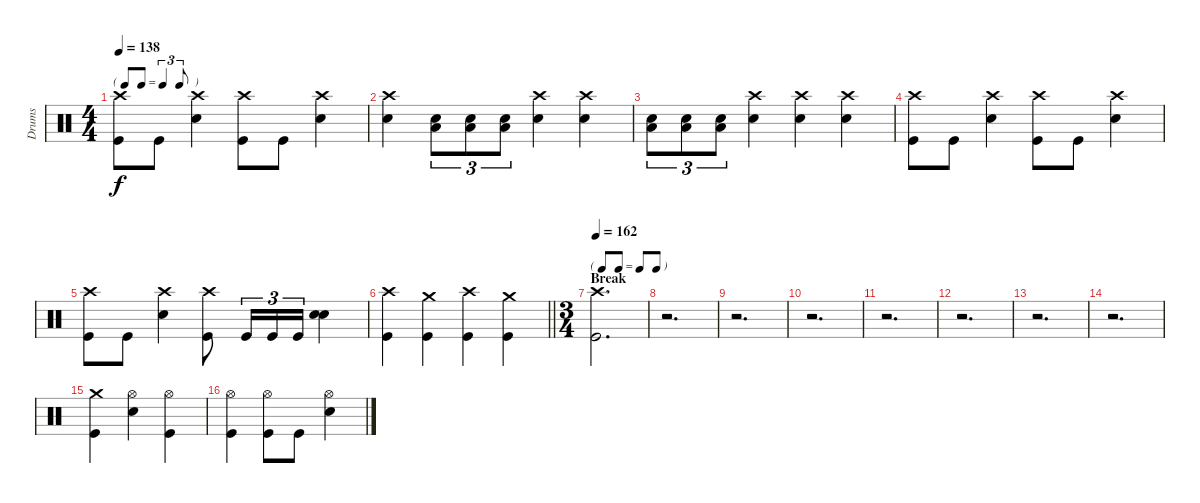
\track ("Drums" "Drums") {instrument percussion}
\staff {score}
\articulation defaults
\ts (4 4)
\tf triplet8th
\tempo 138
\clef neutral
\ks c
("Crash high (hit)" "Kick (hit)").8{dy f} "Kick (hit)".8 ("Crash high (hit)" "Snare (hit) 2").4 ("Crash high (hit)" "Kick (hit)").8 "Kick (hit)".8 ("Crash high (hit)" "Snare (hit) 2").4 |
("Crash high (hit)" "Snare (hit) 2").4 ("Low Tom (hit)" "Snare (hit) 2").8{tu (3 2)} ("Low Tom (hit)" "Snare (hit) 2").8{tu (3 2)} ("Low Tom (hit)" "Snare (hit) 2").8{tu (3 2)} ("Crash high (hit)" "Snare (hit) 2").4 ("Crash high (hit)" "Snare (hit) 2").4 |
("Low Tom (hit)" "Snare (hit) 2").8{tu (3 2)} ("Low Tom (hit)" "Snare (hit) 2").8{tu (3 2)} ("Low Tom (hit)" "Snare (hit) 2").8{tu (3 2)} ("Crash high (hit)" "Snare (hit) 2").4 ("Crash high (hit)" "Snare (hit) 2").4 ("Crash high (hit)" "Snare (hit) 2").4 |
("Crash high (hit)" "Kick (hit)").8 "Kick (hit)".8 ("Crash high (hit)" "Snare (hit) 2").4 ("Crash high (hit)" "Kick (hit)").8 "Kick (hit)".8 ("Crash high (hit)" "Snare (hit) 2").4 |
("Crash high (hit)" "Kick (hit)").8 "Kick (hit)".8 ("Crash high (hit)" "Snare (hit) 2").4 ("Crash high (hit)" "Kick (hit)").8 "Kick (hit)".16{tu (3 2)} "Kick (hit)".16{tu (3 2)} "Kick (hit)".16{tu (3 2)} ("Snare (hit) 2" "Snare (hit) 2").4{bd 240} |
\barLineRight lightlight
("Crash high (hit)" "Kick (hit)").4 ("Crash medium (hit)" "Kick (hit)").4 ("Crash high (hit)" "Kick (hit)").4 ("Crash medium (hit)" "Kick (hit)").4 |
\ts (3 4)
\tf none
\section ("" "Break")
\tempo 162
("Crash high (hit)" "Kick (hit)").2{d} |
r.2{d} |
r.2{d} |
r.2{d} |
r.2{d} |
r.2{d} |
r.2{d} |
r.2{d} |
("Crash medium (hit)" "Kick (hit)").4 ("Hi-Hat (open)" "Snare (hit) 2").4 ("Hi-Hat (open)" "Kick (hit)").4 |
("Hi-Hat (open)" "Kick (hit)").4 ("Hi-Hat (open)" "Kick (hit)").8 "Kick (hit)".8 ("Hi-Hat (open)" "Snare (hit) 2").4
